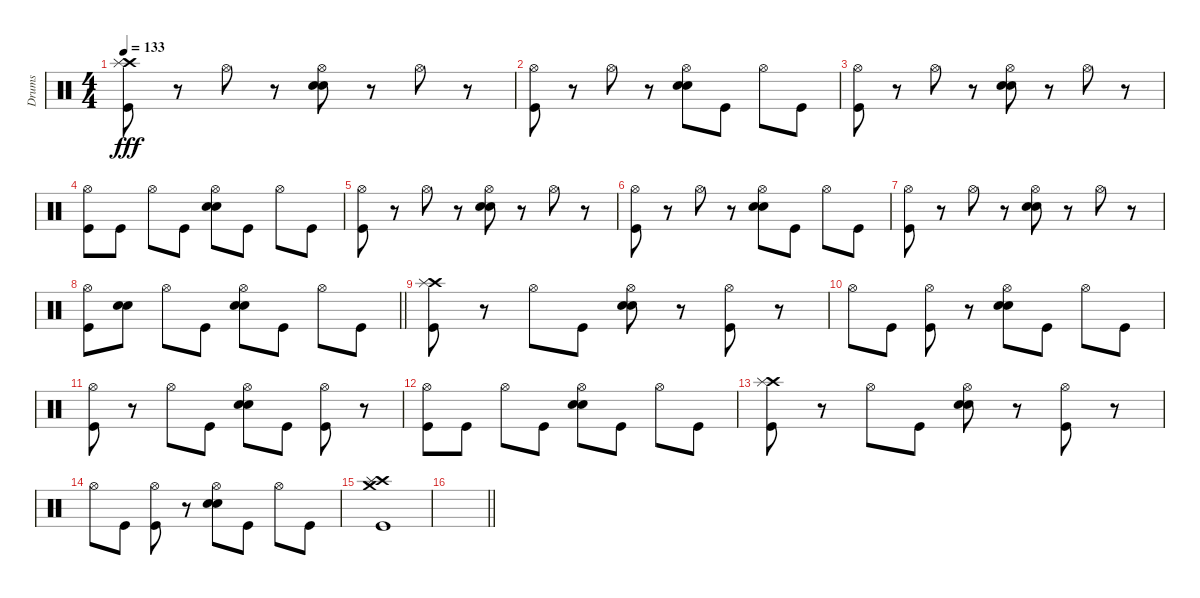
\track ("Drums" "Drums") {instrument percussion}
\staff {score}
\articulation defaults
\ts (4 4)
\tempo 133
\clef neutral
\ks c
("Crash high (hit)" "Splash (hit)" "Kick (hit)").8{dy fff} r.8 "Hi-Hat (open)".8 r.8 ("Hi-Hat (open)" "Electric Snare (hit)" "Snare (hit) 2").8 r.8 "Hi-Hat (open)".8 r.8 |
("Hi-Hat (open)" "Kick (hit)").8 r.8 "Hi-Hat (open)".8 r.8 ("Hi-Hat (open)" "Electric Snare (hit)" "Snare (hit) 2").8 "Kick (hit)".8 "Hi-Hat (open)".8 "Kick (hit)".8 |
("Hi-Hat (open)" "Kick (hit)").8 r.8 "Hi-Hat (open)".8 r.8 ("Hi-Hat (open)" "Electric Snare (hit)" "Snare (hit) 2").8 r.8 "Hi-Hat (open)".8 r.8 |
("Hi-Hat (open)" "Kick (hit)").8 "Kick (hit)".8 "Hi-Hat (open)".8 "Kick (hit)".8 ("Hi-Hat (open)" "Electric Snare (hit)" "Snare (hit) 2").8 "Kick (hit)".8 "Hi-Hat (open)".8 "Kick (hit)".8 |
("Hi-Hat (open)" "Kick (hit)").8 r.8 "Hi-Hat (open)".8 r.8 ("Hi-Hat (open)" "Electric Snare (hit)" "Snare (hit) 2").8 r.8 "Hi-Hat (open)".8 r.8 |
("Hi-Hat (open)" "Kick (hit)").8 r.8 "Hi-Hat (open)".8 r.8 ("Hi-Hat (open)" "Electric Snare (hit)" "Snare (hit) 2").8 "Kick (hit)".8 "Hi-Hat (open)".8 "Kick (hit)".8 |
("Hi-Hat (open)" "Kick (hit)").8 r.8 "Hi-Hat (open)".8 r.8 ("Hi-Hat (open)" "Electric Snare (hit)" "Snare (hit) 2").8 r.8 "Hi-Hat (open)".8 r.8 |
\barLineRight lightlight
("Hi-Hat (open)" "Kick (hit)").8 ("Electric Snare (hit)" "Snare (hit) 2").8 "Hi-Hat (open)".8 "Kick (hit)".8 ("Hi-Hat (open)" "Electric Snare (hit)" "Snare (hit) 2").8 "Kick (hit)".8 "Hi-Hat (open)".8 "Kick (hit)".8 |
("Crash high (hit)" "Splash (hit)" "Kick (hit)").8 r.8 "Hi-Hat (open)".8 "Kick (hit)".8 ("Hi-Hat (open)" "Electric Snare (hit)" "Snare (hit) 2").8 r.8 ("Hi-Hat (open)" "Kick (hit)").8 r.8 |
"Hi-Hat (open)".8 "Kick (hit)".8 ("Hi-Hat (open)" "Kick (hit)").8 r.8 ("Hi-Hat (open)" "Electric Snare (hit)" "Snare (hit) 2").8 "Kick (hit)".8 "Hi-Hat (open)".8 "Kick (hit)".8 |
("Hi-Hat (open)" "Kick (hit)").8 r.8 "Hi-Hat (open)".8 "Kick (hit)".8 ("Hi-Hat (open)" "Electric Snare (hit)" "Snare (hit) 2").8 "Kick (hit)".8 ("Hi-Hat (open)" "Kick (hit)").8 r.8 |
("Hi-Hat (open)" "Kick (hit)").8 "Kick (hit)".8 "Hi-Hat (open)".8 "Kick (hit)".8 ("Hi-Hat (open)" "Electric Snare (hit)" "Snare (hit) 2").8 "Kick (hit)".8 "Hi-Hat (open)".8 "Kick (hit)".8 |
("Crash high (hit)" "Splash (hit)" "Kick (hit)").8 r.8 "Hi-Hat (open)".8 "Kick (hit)".8 ("Hi-Hat (open)" "Electric Snare (hit)" "Snare (hit) 2").8 r.8 ("Hi-Hat (open)" "Kick (hit)").8 r.8 |
"Hi-Hat (open)".8 "Kick (hit)".8 ("Hi-Hat (open)" "Kick (hit)").8 r.8 ("Hi-Hat (open)" "Electric Snare (hit)" "Snare (hit) 2").8 "Kick (hit)".8 "Hi-Hat (open)".8 "Kick (hit)".8 |
("Crash high (hit)" "Splash (hit)" "Crash medium (hit)" "Kick (hit)").1 |
\barLineRight lightlight
